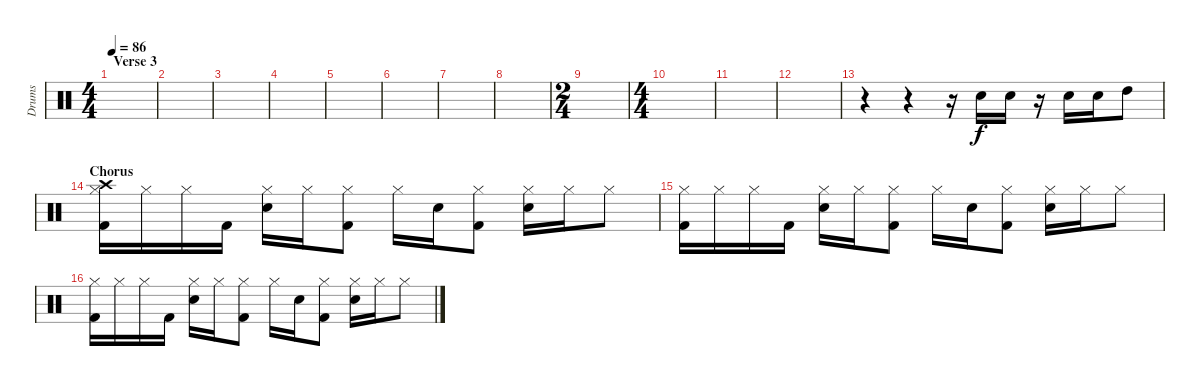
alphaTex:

\track ("Drums" "Drums") {instrument percussion}
\staff {score}
\articulation defaults
\ts (4 4)
\section ("" "Verse 3")
\tempo 86
\clef neutral
\ks c
|
|
|
|
|
|
|
|
\ts (2 4)
|
\ts (4 4)
|
|
|
r.4 r.4 r.16 "Electric Snare (hit)".16 "Electric Snare (hit)".16 r.16 "Electric Snare (hit)".16 "Electric Snare (hit)".16 "High Tom (hit)".8 |
\section ("" "Chorus")
("Crash high (hit)" "Hi-Hat (closed)" "Kick (hit) 2").16 "Hi-Hat (closed)".16 "Hi-Hat (closed)".16 "Kick (hit) 2".16 ("Hi-Hat (closed)" "Electric Snare (hit)").16 "Hi-Hat (closed)".16 ("Hi-Hat (closed)" "Kick (hit) 2").8 "Hi-Hat (closed)".16 "Electric Snare (hit)".16 ("Hi-Hat (closed)" "Kick (hit) 2").8 ("Hi-Hat (closed)" "Electric Snare (hit)").16 "Hi-Hat (closed)".16 "Hi-Hat (closed)".8 |
("Hi-Hat (closed)" "Kick (hit) 2").16 "Hi-Hat (closed)".16 "Hi-Hat (closed)".16 "Kick (hit) 2".16 ("Hi-Hat (closed)" "Electric Snare (hit)").16 "Hi-Hat (closed)".16 ("Hi-Hat (closed)" "Kick (hit) 2").8 "Hi-Hat (closed)".16 "Electric Snare (hit)".16 ("Hi-Hat (closed)" "Kick (hit) 2").8 ("Hi-Hat (closed)" "Electric Snare (hit)").16 "Hi-Hat (closed)".16 "Hi-Hat (closed)".8 |
("Hi-Hat (closed)" "Kick (hit) 2").16 "Hi-Hat (closed)".16 "Hi-Hat (closed)".16 "Kick (hit) 2".16 ("Hi-Hat (closed)" "Electric Snare (hit)").16 "Hi-Hat (closed)".16 ("Hi-Hat (closed)" "Kick (hit) 2").8 "Hi-Hat (closed)".16 "Electric Snare (hit)".16 ("Hi-Hat (closed)" "Kick (hit) 2").8 ("Hi-Hat (closed)" "Electric Snare (hit)").16 "Hi-Hat (closed)".16 "Hi-Hat (closed)".8
